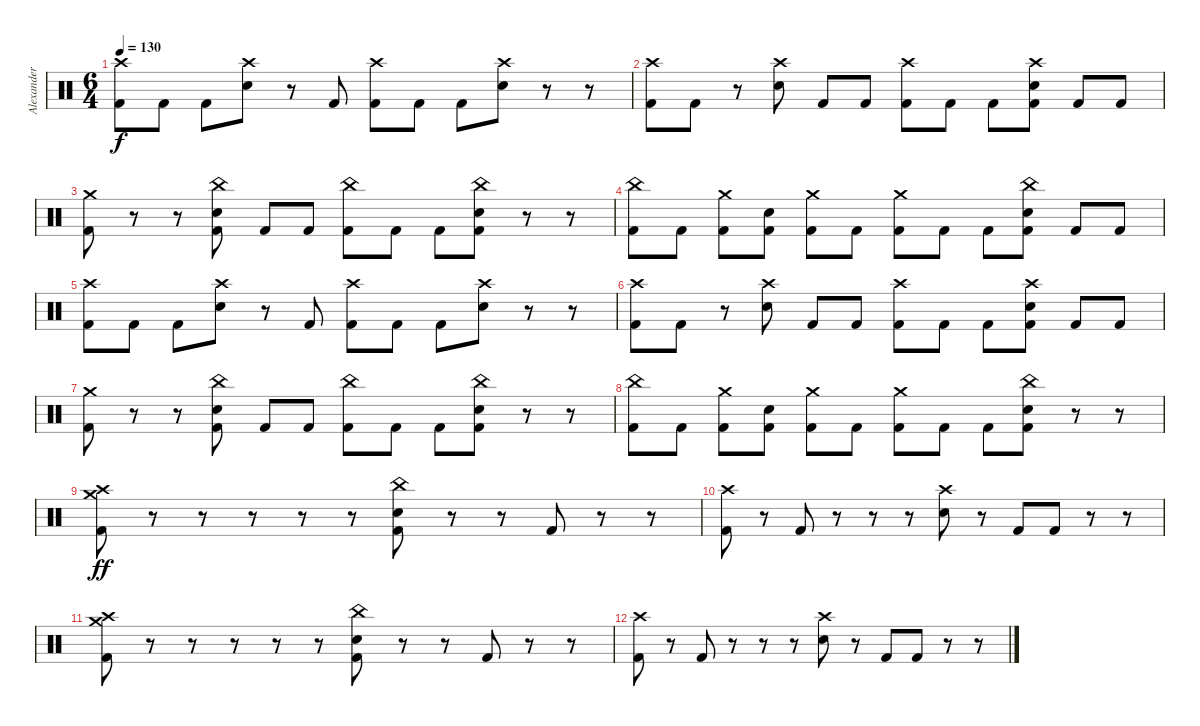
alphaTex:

\track ("Alexander Yazykov" "Alexander ") {instrument percussion}
\staff {score}
\articulation defaults
\ts (6 4)
\tempo 130
\clef neutral
\ks c
("Crash high (hit)" "Kick (hit) 2").8{dy f} "Kick (hit) 2".8 "Kick (hit) 2".8 ("Crash high (hit)" "Electric Snare (hit)").8 r.8 "Kick (hit) 2".8 ("Crash high (hit)" "Kick (hit) 2").8 "Kick (hit) 2".8 "Kick (hit) 2".8 ("Crash high (hit)" "Electric Snare (hit)").8 r.8 r.8 |
("Crash high (hit)" "Kick (hit) 2").8 "Kick (hit) 2".8 r.8 ("Crash high (hit)" "Electric Snare (hit)").8 "Kick (hit) 2".8 "Kick (hit) 2".8 ("Crash high (hit)" "Kick (hit) 2").8 "Kick (hit) 2".8 "Kick (hit) 2".8 ("Crash high (hit)" "Electric Snare (hit)" "Kick (hit) 2").8 "Kick (hit) 2".8 "Kick (hit) 2".8 |
("Crash medium (hit)" "Kick (hit) 2").8 r.8 r.8 ("China (hit)" "Electric Snare (hit)" "Kick (hit) 2").8 "Kick (hit) 2".8 "Kick (hit) 2".8 ("China (hit)" "Kick (hit) 2").8 "Kick (hit) 2".8 "Kick (hit) 2".8 ("China (hit)" "Electric Snare (hit)" "Kick (hit) 2").8 r.8 r.8 |
("China (hit)" "Kick (hit) 2").8 "Kick (hit) 2".8 ("Crash medium (hit)" "Kick (hit) 2").8 ("Electric Snare (hit)" "Kick (hit) 2").8 ("Crash medium (hit)" "Kick (hit) 2").8 "Kick (hit) 2".8 ("Crash medium (hit)" "Kick (hit) 2").8 "Kick (hit) 2".8 "Kick (hit) 2".8 ("China (hit)" "Electric Snare (hit)" "Kick (hit) 2").8 "Kick (hit) 2".8 "Kick (hit) 2".8 |
("Crash high (hit)" "Kick (hit) 2").8 "Kick (hit) 2".8 "Kick (hit) 2".8 ("Crash high (hit)" "Electric Snare (hit)").8 r.8 "Kick (hit) 2".8 ("Crash high (hit)" "Kick (hit) 2").8 "Kick (hit) 2".8 "Kick (hit) 2".8 ("Crash high (hit)" "Electric Snare (hit)").8 r.8 r.8 |
("Crash high (hit)" "Kick (hit) 2").8 "Kick (hit) 2".8 r.8 ("Crash high (hit)" "Electric Snare (hit)").8 "Kick (hit) 2".8 "Kick (hit) 2".8 ("Crash high (hit)" "Kick (hit) 2").8 "Kick (hit) 2".8 "Kick (hit) 2".8 ("Crash high (hit)" "Electric Snare (hit)" "Kick (hit) 2").8 "Kick (hit) 2".8 "Kick (hit) 2".8 |
("Crash medium (hit)" "Kick (hit) 2").8 r.8 r.8 ("China (hit)" "Electric Snare (hit)" "Kick (hit) 2").8 "Kick (hit) 2".8 "Kick (hit) 2".8 ("China (hit)" "Kick (hit) 2").8 "Kick (hit) 2".8 "Kick (hit) 2".8 ("China (hit)" "Electric Snare (hit)" "Kick (hit) 2").8 r.8 r.8 |
("China (hit)" "Kick (hit) 2").8 "Kick (hit) 2".8 ("Crash medium (hit)" "Kick (hit) 2").8 ("Electric Snare (hit)" "Kick (hit) 2").8 ("Crash medium (hit)" "Kick (hit) 2").8 "Kick (hit) 2".8 ("Crash medium (hit)" "Kick (hit) 2").8 "Kick (hit) 2".8 "Kick (hit) 2".8 ("China (hit)" "Electric Snare (hit)" "Kick (hit) 2").8 r.8 r.8 |
("Crash high (hit)" "Crash medium (hit)" "Kick (hit) 2").8{dy ff} r.8 r.8 r.8 r.8 r.8 ("China (hit)" "Electric Snare (hit)" "Kick (hit) 2").8 r.8 r.8 "Kick (hit) 2".8 r.8 r.8 |
("Crash high (hit)" "Kick (hit) 2").8 r.8 "Kick (hit) 2".8 r.8 r.8 r.8 ("Crash high (hit)" "Electric Snare (hit)").8 r.8 "Kick (hit) 2".8 "Kick (hit) 2".8 r.8 r.8 |
("Crash high (hit)" "Crash medium (hit)" "Kick (hit) 2").8 r.8 r.8 r.8 r.8 r.8 ("China (hit)" "Electric Snare (hit)" "Kick (hit) 2").8 r.8 r.8 "Kick (hit) 2".8 r.8 r.8 |
("Crash high (hit)" "Kick (hit) 2").8 r.8 "Kick (hit) 2".8 r.8 r.8 r.8 ("Crash high (hit)" "Electric Snare (hit)").8 r.8 "Kick (hit) 2".8 "Kick (hit) 2".8 r.8 r.8
